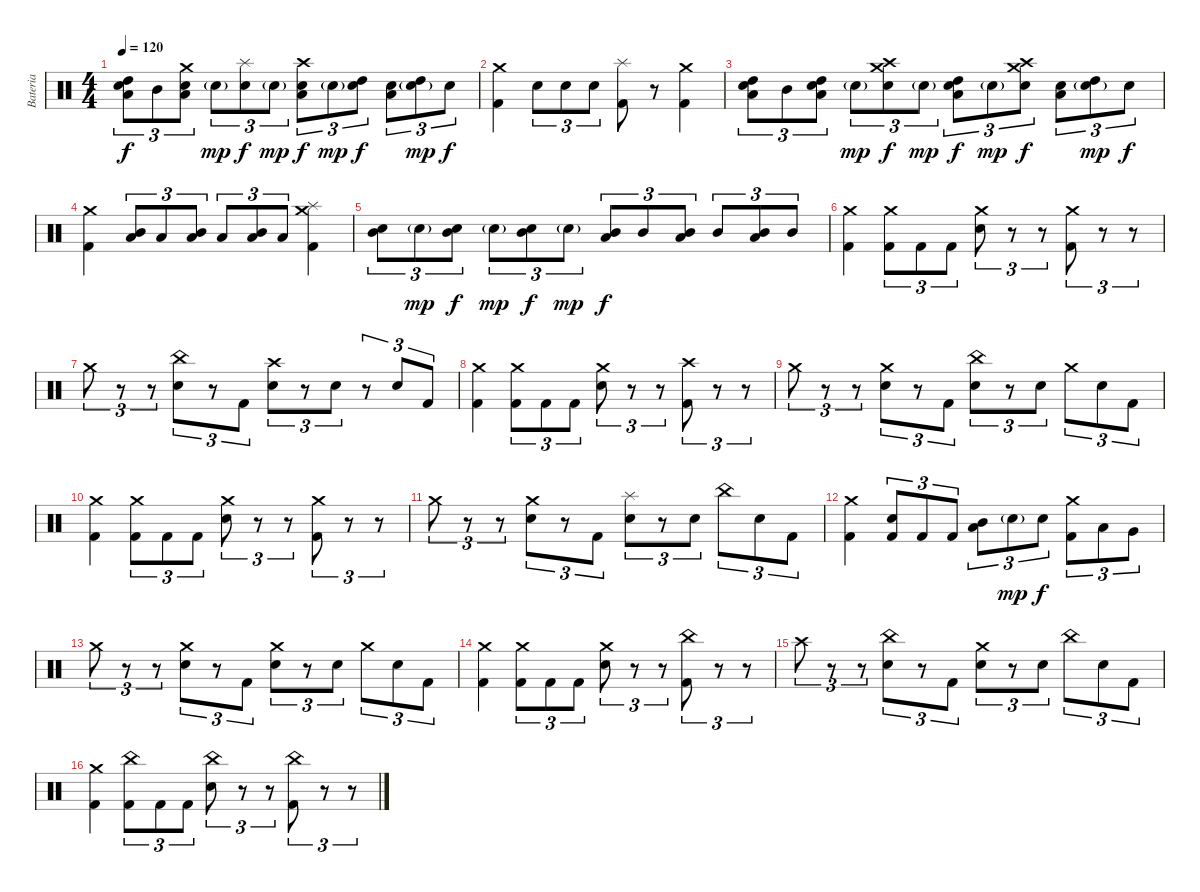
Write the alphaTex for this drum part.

\track ("Bateria" "Bateria") {instrument percussion}
\staff
\articulation defaults
\ts (4 4)
\tempo 120
\clef neutral
\ks c
("High Tom (hit)" "Low Tom (hit)" "Electric Snare (hit)").8{tu (3 2) dy f} "Mid Tom (hit)".8{tu (3 2)} ("Crash medium (hit)" "Low Tom (hit)" "Electric Snare (hit)").8{tu (3 2)} "Electric Snare (hit)"{g}.8{tu (3 2) dy mp} ("Splash (hit)" "Electric Snare (hit)").8{tu (3 2) dy f} "Electric Snare (hit)"{g}.8{tu (3 2) dy mp} ("Crash high (hit)" "Electric Snare (hit)" "Low Tom (hit)").8{tu (3 2) dy f} "Electric Snare (hit)"{g}.8{tu (3 2) dy mp} ("High Tom (hit)" "Electric Snare (hit)").8{tu (3 2) dy f} ("Electric Snare (hit)" "Low Tom (hit)").8{tu (3 2)} ("High Tom (hit)" "Electric Snare (hit)"{g}).8{tu (3 2) dy mp} "Electric Snare (hit)".8{tu (3 2) dy f} |
("Crash medium (hit)" "Kick (hit) 2").4 "Electric Snare (hit)".8{tu (3 2)} "Electric Snare (hit)".8{tu (3 2)} "Electric Snare (hit)".8{tu (3 2)} ("Splash (hit)" "Kick (hit) 2").8 r.8 ("Crash medium (hit)" "Kick (hit) 2").4 |
("High Tom (hit)" "Low Tom (hit)" "Electric Snare (hit)").8{tu (3 2)} "Mid Tom (hit)".8{tu (3 2)} ("High Tom (hit)" "Low Tom (hit)" "Electric Snare (hit)").8{tu (3 2)} "Electric Snare (hit)"{g}.8{tu (3 2) dy mp} ("Crash high (hit)" "Crash medium (hit)" "Electric Snare (hit)").8{tu (3 2) dy f} "Electric Snare (hit)"{g}.8{tu (3 2) dy mp} ("High Tom (hit)" "Electric Snare (hit)" "Low Tom (hit)").8{tu (3 2) dy f} "Electric Snare (hit)"{g}.8{tu (3 2) dy mp} ("Crash high (hit)" "Crash medium (hit)" "Electric Snare (hit)").8{tu (3 2) dy f} ("Electric Snare (hit)" "Low Tom (hit)").8{tu (3 2)} ("High Tom (hit)" "Electric Snare (hit)"{g}).8{tu (3 2) dy mp} "Electric Snare (hit)".8{tu (3 2) dy f} |
("Crash medium (hit)" "Kick (hit) 2").4 ("Mid Tom (hit)" "Low Tom (hit)").8{tu (3 2)} "Low Tom (hit)".8{tu (3 2)} ("Mid Tom (hit)" "Low Tom (hit)").8{tu (3 2)} "Low Tom (hit)".8{tu (3 2)} ("Mid Tom (hit)" "Low Tom (hit)").8{tu (3 2)} "Low Tom (hit)".8{tu (3 2)} ("Crash medium (hit)" "Splash (hit)" "Kick (hit) 2").4 |
("Mid Tom (hit)" "Electric Snare (hit)").8{tu (3 2)} "Electric Snare (hit)"{g}.8{tu (3 2) dy mp} ("Mid Tom (hit)" "Electric Snare (hit)").8{tu (3 2) dy f} "Electric Snare (hit)"{g}.8{tu (3 2) dy mp} ("Mid Tom (hit)" "Electric Snare (hit)").8{tu (3 2) dy f} "Electric Snare (hit)"{g}.8{tu (3 2) dy mp} ("Mid Tom (hit)" "Low Tom (hit)").8{tu (3 2) dy f} "Mid Tom (hit)".8{tu (3 2)} ("Mid Tom (hit)" "Low Tom (hit)").8{tu (3 2)} "Mid Tom (hit)".8{tu (3 2)} ("Mid Tom (hit)" "Low Tom (hit)").8{tu (3 2)} "Mid Tom (hit)".8{tu (3 2)} |
("Crash medium (hit)" "Kick (hit) 2").4 ("Crash medium (hit)" "Kick (hit) 2").8{tu (3 2)} "Kick (hit) 2".8{tu (3 2)} "Kick (hit) 2".8{tu (3 2)} ("Crash medium (hit)" "Electric Snare (hit)").8{tu (3 2)} r.8{tu (3 2)} r.8{tu (3 2)} ("Crash medium (hit)" "Kick (hit) 2").8{tu (3 2)} r.8{tu (3 2)} r.8{tu (3 2)} |
"Crash medium (hit)".8{tu (3 2)} r.8{tu (3 2)} r.8{tu (3 2)} ("China (hit)" "Electric Snare (hit)").8{tu (3 2)} r.8{tu (3 2)} "Kick (hit) 2".8{tu (3 2)} ("Crash high (hit)" "Electric Snare (hit)").8{tu (3 2)} r.8{tu (3 2)} "Electric Snare (hit)".8{tu (3 2)} r.8{tu (3 2)} "Electric Snare (hit)".8{tu (3 2)} "Kick (hit) 2".8{tu (3 2)} |
("Crash medium (hit)" "Kick (hit) 2").4 ("Crash medium (hit)" "Kick (hit) 2").8{tu (3 2)} "Kick (hit) 2".8{tu (3 2)} "Kick (hit) 2".8{tu (3 2)} ("Crash medium (hit)" "Electric Snare (hit)").8{tu (3 2)} r.8{tu (3 2)} r.8{tu (3 2)} ("Crash high (hit)" "Kick (hit) 2").8{tu (3 2)} r.8{tu (3 2)} r.8{tu (3 2)} |
"Crash medium (hit)".8{tu (3 2)} r.8{tu (3 2)} r.8{tu (3 2)} ("Crash medium (hit)" "Electric Snare (hit)").8{tu (3 2)} r.8{tu (3 2)} "Kick (hit) 2".8{tu (3 2)} ("China (hit)" "Electric Snare (hit)").8{tu (3 2)} r.8{tu (3 2)} "Electric Snare (hit)".8{tu (3 2)} "Crash medium (hit)".8{tu (3 2)} "Electric Snare (hit)".8{tu (3 2)} "Kick (hit) 2".8{tu (3 2)} |
("Crash medium (hit)" "Kick (hit) 2").4 ("Crash medium (hit)" "Kick (hit) 2").8{tu (3 2)} "Kick (hit) 2".8{tu (3 2)} "Kick (hit) 2".8{tu (3 2)} ("Crash medium (hit)" "Electric Snare (hit)").8{tu (3 2)} r.8{tu (3 2)} r.8{tu (3 2)} ("Crash medium (hit)" "Kick (hit) 2").8{tu (3 2)} r.8{tu (3 2)} r.8{tu (3 2)} |
"Crash medium (hit)".8{tu (3 2)} r.8{tu (3 2)} r.8{tu (3 2)} ("Crash medium (hit)" "Electric Snare (hit)").8{tu (3 2)} r.8{tu (3 2)} "Kick (hit) 2".8{tu (3 2)} ("Splash (hit)" "Electric Snare (hit)").8{tu (3 2)} r.8{tu (3 2)} "Electric Snare (hit)".8{tu (3 2)} "China (hit)".8{tu (3 2)} "Electric Snare (hit)".8{tu (3 2)} "Kick (hit) 2".8{tu (3 2)} |
("Crash medium (hit)" "Kick (hit) 2").4 ("Electric Snare (hit)" "Kick (hit) 2").8{tu (3 2)} "Kick (hit) 2".8{tu (3 2)} "Kick (hit) 2".8{tu (3 2)} ("Low Tom (hit)" "Mid Tom (hit)").8{tu (3 2)} "Electric Snare (hit)"{g}.8{tu (3 2) dy mp} "Electric Snare (hit)".8{tu (3 2) dy f} ("Crash medium (hit)" "Kick (hit) 2").8{tu (3 2)} "Low Tom (hit)".8{tu (3 2)} "Very Low Tom (hit)".8{tu (3 2)} |
"Crash medium (hit)".8{tu (3 2)} r.8{tu (3 2)} r.8{tu (3 2)} ("Crash medium (hit)" "Electric Snare (hit)").8{tu (3 2)} r.8{tu (3 2)} "Kick (hit) 2".8{tu (3 2)} ("Crash medium (hit)" "Electric Snare (hit)").8{tu (3 2)} r.8{tu (3 2)} "Electric Snare (hit)".8{tu (3 2)} "Crash medium (hit)".8{tu (3 2)} "Electric Snare (hit)".8{tu (3 2)} "Kick (hit) 2".8{tu (3 2)} |
("Crash medium (hit)" "Kick (hit) 2").4 ("Crash medium (hit)" "Kick (hit) 2").8{tu (3 2)} "Kick (hit) 2".8{tu (3 2)} "Kick (hit) 2".8{tu (3 2)} ("Crash medium (hit)" "Electric Snare (hit)").8{tu (3 2)} r.8{tu (3 2)} r.8{tu (3 2)} ("China (hit)" "Kick (hit) 2").8{tu (3 2)} r.8{tu (3 2)} r.8{tu (3 2)} |
"Crash high (hit)".8{tu (3 2)} r.8{tu (3 2)} r.8{tu (3 2)} ("China (hit)" "Electric Snare (hit)").8{tu (3 2)} r.8{tu (3 2)} "Kick (hit) 2".8{tu (3 2)} ("Crash medium (hit)" "Electric Snare (hit)").8{tu (3 2)} r.8{tu (3 2)} "Electric Snare (hit)".8{tu (3 2)} "China (hit)".8{tu (3 2)} "Electric Snare (hit)".8{tu (3 2)} "Kick (hit) 2".8{tu (3 2)} |
("Crash medium (hit)" "Kick (hit) 2").4 ("China (hit)" "Kick (hit) 2").8{tu (3 2)} "Kick (hit) 2".8{tu (3 2)} "Kick (hit) 2".8{tu (3 2)} ("China (hit)" "Electric Snare (hit)").8{tu (3 2)} r.8{tu (3 2)} r.8{tu (3 2)} ("China (hit)" "Kick (hit) 2").8{tu (3 2)} r.8{tu (3 2)} r.8{tu (3 2)}
